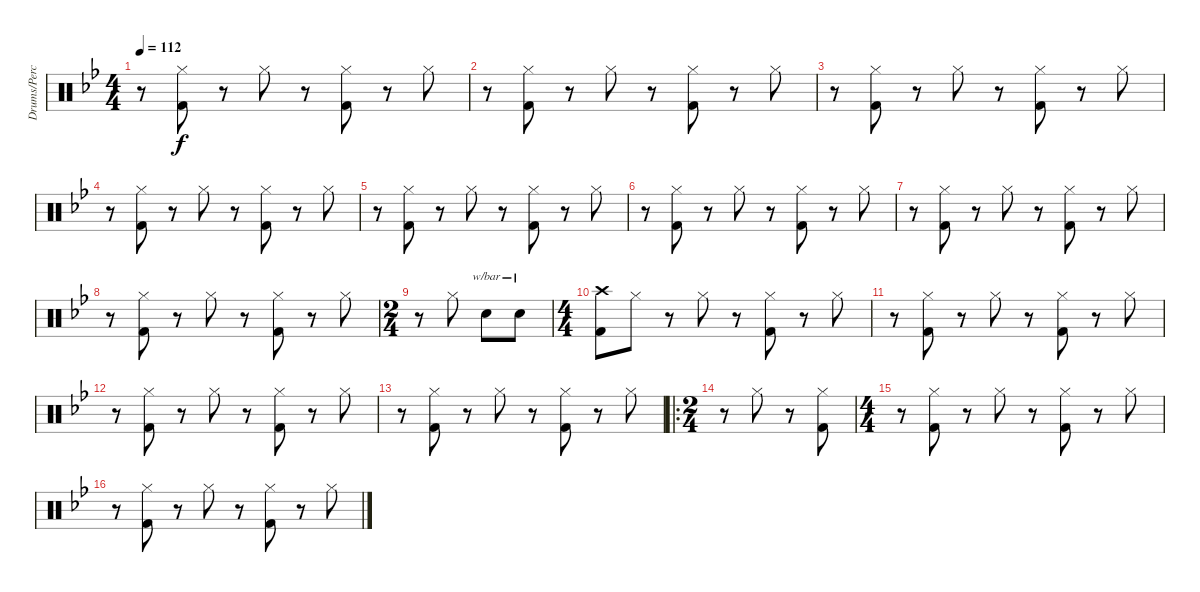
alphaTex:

\track ("Drums/Percussion (Bengerg)" "Drums/Perc") {instrument percussion}
\staff {score}
\articulation defaults
\ts (4 4)
\tempo 112
\clef neutral
\ks bb
r.8{dy f} ("Hi-Hat (closed)" "Kick (hit) 2").8 r.8 "Hi-Hat (closed)".8 r.8 ("Hi-Hat (closed)" "Kick (hit) 2").8 r.8 "Hi-Hat (closed)".8 |
r.8 ("Hi-Hat (closed)" "Kick (hit) 2").8 r.8 "Hi-Hat (closed)".8 r.8 ("Hi-Hat (closed)" "Kick (hit) 2").8 r.8 "Hi-Hat (closed)".8 |
r.8 ("Hi-Hat (closed)" "Kick (hit) 2").8 r.8 "Hi-Hat (closed)".8 r.8 ("Hi-Hat (closed)" "Kick (hit) 2").8 r.8 "Hi-Hat (closed)".8 |
r.8 ("Hi-Hat (closed)" "Kick (hit) 2").8 r.8 "Hi-Hat (closed)".8 r.8 ("Hi-Hat (closed)" "Kick (hit) 2").8 r.8 "Hi-Hat (closed)".8 |
r.8 ("Hi-Hat (closed)" "Kick (hit) 2").8 r.8 "Hi-Hat (closed)".8 r.8 ("Hi-Hat (closed)" "Kick (hit) 2").8 r.8 "Hi-Hat (closed)".8 |
r.8 ("Hi-Hat (closed)" "Kick (hit) 2").8 r.8 "Hi-Hat (closed)".8 r.8 ("Hi-Hat (closed)" "Kick (hit) 2").8 r.8 "Hi-Hat (closed)".8 |
r.8 ("Hi-Hat (closed)" "Kick (hit) 2").8 r.8 "Hi-Hat (closed)".8 r.8 ("Hi-Hat (closed)" "Kick (hit) 2").8 r.8 "Hi-Hat (closed)".8 |
r.8 ("Hi-Hat (closed)" "Kick (hit) 2").8 r.8 "Hi-Hat (closed)".8 r.8 ("Hi-Hat (closed)" "Kick (hit) 2").8 r.8 "Hi-Hat (closed)".8 |
\ts (2 4)
r.8 "Hi-Hat (closed)".8 "Electric Snare (hit)".8{tbe (custom default 0 12 45 12 60 0) balance 16} "Electric Snare (hit)".8{tbe (custom default 0 12 45 12 60 0) balance 0} |
\ts (4 4)
("Crash high (hit)" "Kick (hit) 2").8{balance 8} "Hi-Hat (closed)".8 r.8 "Hi-Hat (closed)".8 r.8 ("Hi-Hat (closed)" "Kick (hit) 2").8 r.8 "Hi-Hat (closed)".8 |
r.8 ("Hi-Hat (closed)" "Kick (hit) 2").8 r.8 "Hi-Hat (closed)".8 r.8 ("Hi-Hat (closed)" "Kick (hit) 2").8 r.8 "Hi-Hat (closed)".8 |
r.8 ("Hi-Hat (closed)" "Kick (hit) 2").8 r.8 "Hi-Hat (closed)".8 r.8 ("Hi-Hat (closed)" "Kick (hit) 2").8 r.8 "Hi-Hat (closed)".8 |
r.8 ("Hi-Hat (closed)" "Kick (hit) 2").8 r.8 "Hi-Hat (closed)".8 r.8 ("Hi-Hat (closed)" "Kick (hit) 2").8 r.8 "Hi-Hat (closed)".8 |
\ro
\ts (2 4)
r.8 "Hi-Hat (closed)".8 r.8 ("Hi-Hat (closed)" "Kick (hit) 2").8 |
\ts (4 4)
r.8 ("Hi-Hat (closed)" "Kick (hit) 2").8 r.8 "Hi-Hat (closed)".8 r.8 ("Hi-Hat (closed)" "Kick (hit) 2").8 r.8 "Hi-Hat (closed)".8 |
r.8 ("Hi-Hat (closed)" "Kick (hit) 2").8 r.8 "Hi-Hat (closed)".8 r.8 ("Hi-Hat (closed)" "Kick (hit) 2").8 r.8 "Hi-Hat (closed)".8
